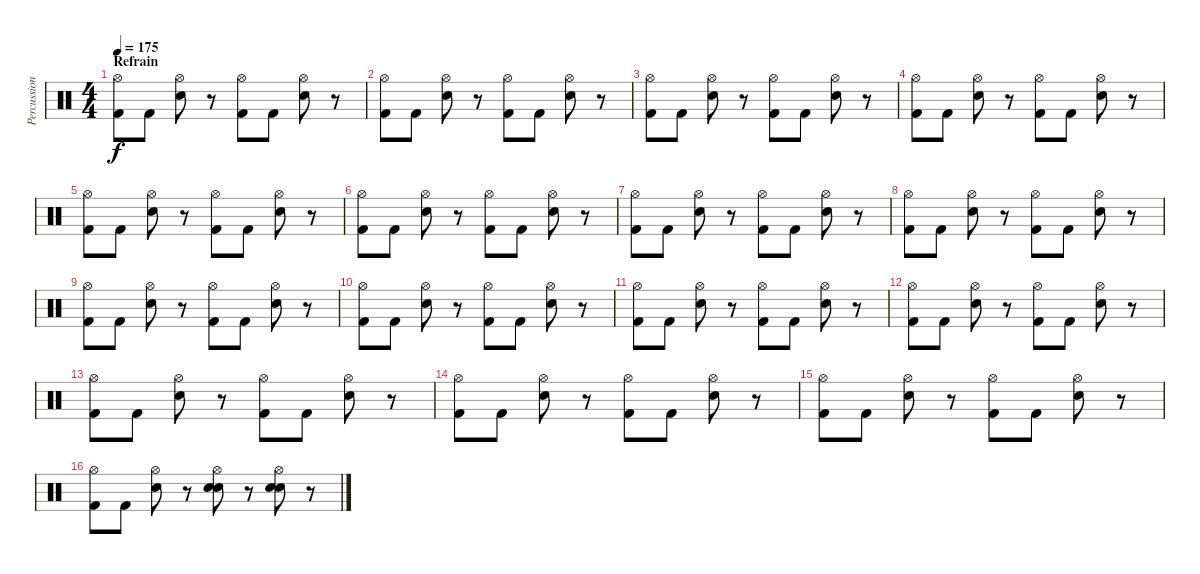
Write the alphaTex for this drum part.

\track ("Percussions" "Percussion") {instrument percussion}
\staff {score}
\articulation defaults
\ts (4 4)
\section ("" "Refrain")
\tempo 175
\clef neutral
\ks c
("Hi-Hat (open)" "Kick (hit) 2").8{dy f} "Kick (hit) 2".8 ("Hi-Hat (open)" "Snare (hit) 2").8 r.8 ("Hi-Hat (open)" "Kick (hit) 2").8 "Kick (hit) 2".8 ("Hi-Hat (open)" "Snare (hit) 2").8 r.8 |
("Hi-Hat (open)" "Kick (hit) 2").8 "Kick (hit) 2".8 ("Hi-Hat (open)" "Snare (hit) 2").8 r.8 ("Hi-Hat (open)" "Kick (hit) 2").8 "Kick (hit) 2".8 ("Hi-Hat (open)" "Snare (hit) 2").8 r.8 |
("Hi-Hat (open)" "Kick (hit) 2").8 "Kick (hit) 2".8 ("Hi-Hat (open)" "Snare (hit) 2").8 r.8 ("Hi-Hat (open)" "Kick (hit) 2").8 "Kick (hit) 2".8 ("Hi-Hat (open)" "Snare (hit) 2").8 r.8 |
("Hi-Hat (open)" "Kick (hit) 2").8 "Kick (hit) 2".8 ("Hi-Hat (open)" "Snare (hit) 2").8 r.8 ("Hi-Hat (open)" "Kick (hit) 2").8 "Kick (hit) 2".8 ("Hi-Hat (open)" "Snare (hit) 2").8 r.8 |
("Hi-Hat (open)" "Kick (hit) 2").8 "Kick (hit) 2".8 ("Hi-Hat (open)" "Snare (hit) 2").8 r.8 ("Hi-Hat (open)" "Kick (hit) 2").8 "Kick (hit) 2".8 ("Hi-Hat (open)" "Snare (hit) 2").8 r.8 |
("Hi-Hat (open)" "Kick (hit) 2").8 "Kick (hit) 2".8 ("Hi-Hat (open)" "Snare (hit) 2").8 r.8 ("Hi-Hat (open)" "Kick (hit) 2").8 "Kick (hit) 2".8 ("Hi-Hat (open)" "Snare (hit) 2").8 r.8 |
("Hi-Hat (open)" "Kick (hit) 2").8 "Kick (hit) 2".8 ("Hi-Hat (open)" "Snare (hit) 2").8 r.8 ("Hi-Hat (open)" "Kick (hit) 2").8 "Kick (hit) 2".8 ("Hi-Hat (open)" "Snare (hit) 2").8 r.8 |
("Hi-Hat (open)" "Kick (hit) 2").8 "Kick (hit) 2".8 ("Hi-Hat (open)" "Snare (hit) 2").8 r.8 ("Hi-Hat (open)" "Kick (hit) 2").8 "Kick (hit) 2".8 ("Hi-Hat (open)" "Snare (hit) 2").8 r.8 |
("Hi-Hat (open)" "Kick (hit) 2").8 "Kick (hit) 2".8 ("Hi-Hat (open)" "Snare (hit) 2").8 r.8 ("Hi-Hat (open)" "Kick (hit) 2").8 "Kick (hit) 2".8 ("Hi-Hat (open)" "Snare (hit) 2").8 r.8 |
("Hi-Hat (open)" "Kick (hit) 2").8 "Kick (hit) 2".8 ("Hi-Hat (open)" "Snare (hit) 2").8 r.8 ("Hi-Hat (open)" "Kick (hit) 2").8 "Kick (hit) 2".8 ("Hi-Hat (open)" "Snare (hit) 2").8 r.8 |
("Hi-Hat (open)" "Kick (hit) 2").8 "Kick (hit) 2".8 ("Hi-Hat (open)" "Snare (hit) 2").8 r.8 ("Hi-Hat (open)" "Kick (hit) 2").8 "Kick (hit) 2".8 ("Hi-Hat (open)" "Snare (hit) 2").8 r.8 |
("Hi-Hat (open)" "Kick (hit) 2").8 "Kick (hit) 2".8 ("Hi-Hat (open)" "Snare (hit) 2").8 r.8 ("Hi-Hat (open)" "Kick (hit) 2").8 "Kick (hit) 2".8 ("Hi-Hat (open)" "Snare (hit) 2").8 r.8 |
("Hi-Hat (open)" "Kick (hit) 2").8 "Kick (hit) 2".8 ("Hi-Hat (open)" "Snare (hit) 2").8 r.8 ("Hi-Hat (open)" "Kick (hit) 2").8 "Kick (hit) 2".8 ("Hi-Hat (open)" "Snare (hit) 2").8 r.8 |
("Hi-Hat (open)" "Kick (hit) 2").8 "Kick (hit) 2".8 ("Hi-Hat (open)" "Snare (hit) 2").8 r.8 ("Hi-Hat (open)" "Kick (hit) 2").8 "Kick (hit) 2".8 ("Hi-Hat (open)" "Snare (hit) 2").8 r.8 |
("Hi-Hat (open)" "Kick (hit) 2").8 "Kick (hit) 2".8 ("Hi-Hat (open)" "Snare (hit) 2").8 r.8 ("Hi-Hat (open)" "Kick (hit) 2").8 "Kick (hit) 2".8 ("Hi-Hat (open)" "Snare (hit) 2").8 r.8 |
("Hi-Hat (open)" "Kick (hit) 2").8 "Kick (hit) 2".8 ("Hi-Hat (open)" "Snare (hit) 2").8 r.8 ("Hi-Hat (open)" "Snare (hit) 2" "Snare (hit) 2").8{bd 60} r.8 ("Hi-Hat (open)" "Snare (hit) 2" "Snare (hit) 2").8{bd 60} r.8
